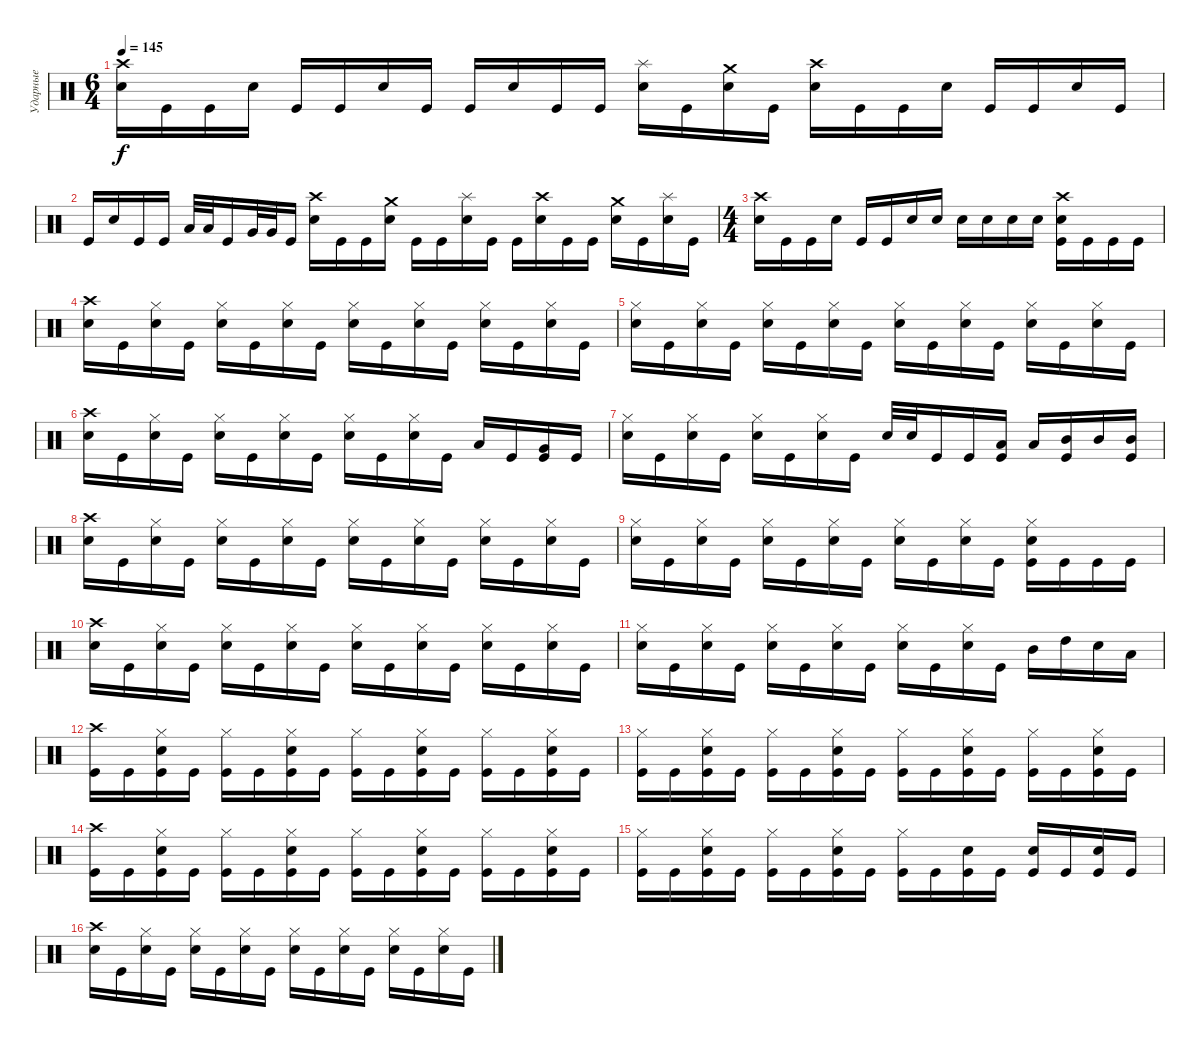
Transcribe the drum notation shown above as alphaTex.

\track ("Ударные" "Ударные") {instrument percussion}
\staff {score}
\articulation defaults
\ts (6 4)
\tempo 145
\clef neutral
\ks c
("Crash high (hit)" "Electric Snare (hit)").16{dy f} "Kick (hit)".16 "Kick (hit)".16 "Electric Snare (hit)".16 "Kick (hit)".16 "Kick (hit)".16 "Electric Snare (hit)".16 "Kick (hit)".16 "Kick (hit)".16 "Electric Snare (hit)".16 "Kick (hit)".16 "Kick (hit)".16 ("Splash (hit)" "Electric Snare (hit)").16 "Kick (hit)".16 ("Crash medium (hit)" "Electric Snare (hit)").16 "Kick (hit)".16 ("Crash high (hit)" "Electric Snare (hit)").16 "Kick (hit)".16 "Kick (hit)".16 "Electric Snare (hit)".16 "Kick (hit)".16 "Kick (hit)".16 "Electric Snare (hit)".16 "Kick (hit)".16 |
"Kick (hit)".16 "Electric Snare (hit)".16 "Kick (hit)".16 "Kick (hit)".16 "Low Tom (hit)".32 "Low Tom (hit)".32 "Kick (hit)".16 "Very Low Tom (hit)".32 "Very Low Tom (hit)".32 "Kick (hit)".16 ("Crash high (hit)" "Electric Snare (hit)").16 "Kick (hit)".16 "Kick (hit)".16 ("Crash medium (hit)" "Electric Snare (hit)").16 "Kick (hit)".16 "Kick (hit)".16 ("Splash (hit)" "Electric Snare (hit)").16 "Kick (hit)".16 "Kick (hit)".16 ("Crash high (hit)" "Electric Snare (hit)").16 "Kick (hit)".16 "Kick (hit)".16 ("Crash medium (hit)" "Electric Snare (hit)").16 "Kick (hit)".16 ("Splash (hit)" "Electric Snare (hit)").16 "Kick (hit)".16 |
\ts (4 4)
("Crash high (hit)" "Electric Snare (hit)").16 "Kick (hit)".16 "Kick (hit)".16 "Electric Snare (hit)".16 "Kick (hit)".16 "Kick (hit)".16 "Electric Snare (hit)".16 "Electric Snare (hit)".16 "Electric Snare (hit)".16 "Electric Snare (hit)".16 "Electric Snare (hit)".16 "Electric Snare (hit)".16 ("Crash high (hit)" "Electric Snare (hit)" "Kick (hit)").16 "Kick (hit)".16 "Kick (hit)".16 "Kick (hit)".16 |
("Crash high (hit)" "Electric Snare (hit)").16 "Kick (hit)".16 ("Hi-Hat (closed)" "Electric Snare (hit)").16 "Kick (hit)".16 ("Hi-Hat (closed)" "Electric Snare (hit)").16 "Kick (hit)".16 ("Hi-Hat (closed)" "Electric Snare (hit)").16 "Kick (hit)".16 ("Hi-Hat (closed)" "Electric Snare (hit)").16 "Kick (hit)".16 ("Hi-Hat (closed)" "Electric Snare (hit)").16 "Kick (hit)".16 ("Hi-Hat (closed)" "Electric Snare (hit)").16 "Kick (hit)".16 ("Hi-Hat (closed)" "Electric Snare (hit)").16 "Kick (hit)".16 |
("Hi-Hat (closed)" "Electric Snare (hit)").16 "Kick (hit)".16 ("Hi-Hat (closed)" "Electric Snare (hit)").16 "Kick (hit)".16 ("Hi-Hat (closed)" "Electric Snare (hit)").16 "Kick (hit)".16 ("Hi-Hat (closed)" "Electric Snare (hit)").16 "Kick (hit)".16 ("Hi-Hat (closed)" "Electric Snare (hit)").16 "Kick (hit)".16 ("Hi-Hat (closed)" "Electric Snare (hit)").16 "Kick (hit)".16 ("Hi-Hat (closed)" "Electric Snare (hit)").16 "Kick (hit)".16 ("Hi-Hat (closed)" "Electric Snare (hit)").16 "Kick (hit)".16 |
("Crash high (hit)" "Electric Snare (hit)").16 "Kick (hit)".16 ("Hi-Hat (closed)" "Electric Snare (hit)").16 "Kick (hit)".16 ("Hi-Hat (closed)" "Electric Snare (hit)").16 "Kick (hit)".16 ("Hi-Hat (closed)" "Electric Snare (hit)").16 "Kick (hit)".16 ("Hi-Hat (closed)" "Electric Snare (hit)").16 "Kick (hit)".16 ("Hi-Hat (closed)" "Electric Snare (hit)").16 "Kick (hit)".16 "Low Tom (hit)".16 "Kick (hit)".16 ("Very Low Tom (hit)" "Kick (hit)").16 "Kick (hit)".16 |
("Hi-Hat (closed)" "Electric Snare (hit)").16 "Kick (hit)".16 ("Hi-Hat (closed)" "Electric Snare (hit)").16 "Kick (hit)".16 ("Hi-Hat (closed)" "Electric Snare (hit)").16 "Kick (hit)".16 ("Hi-Hat (closed)" "Electric Snare (hit)").16 "Kick (hit)".16 "Electric Snare (hit)".32 "Electric Snare (hit)".32 "Kick (hit)".16 "Kick (hit)".16 ("Low Tom (hit)" "Kick (hit)").16 "Low Tom (hit)".16 ("Mid Tom (hit)" "Kick (hit)").16 "Mid Tom (hit)".16 ("Mid Tom (hit)" "Kick (hit)").16 |
("Crash high (hit)" "Electric Snare (hit)").16 "Kick (hit)".16 ("Hi-Hat (closed)" "Electric Snare (hit)").16 "Kick (hit)".16 ("Hi-Hat (closed)" "Electric Snare (hit)").16 "Kick (hit)".16 ("Hi-Hat (closed)" "Electric Snare (hit)").16 "Kick (hit)".16 ("Hi-Hat (closed)" "Electric Snare (hit)").16 "Kick (hit)".16 ("Hi-Hat (closed)" "Electric Snare (hit)").16 "Kick (hit)".16 ("Hi-Hat (closed)" "Electric Snare (hit)").16 "Kick (hit)".16 ("Hi-Hat (closed)" "Electric Snare (hit)").16 "Kick (hit)".16 |
("Hi-Hat (closed)" "Electric Snare (hit)").16 "Kick (hit)".16 ("Hi-Hat (closed)" "Electric Snare (hit)").16 "Kick (hit)".16 ("Hi-Hat (closed)" "Electric Snare (hit)").16 "Kick (hit)".16 ("Hi-Hat (closed)" "Electric Snare (hit)").16 "Kick (hit)".16 ("Hi-Hat (closed)" "Electric Snare (hit)").16 "Kick (hit)".16 ("Hi-Hat (closed)" "Electric Snare (hit)").16 "Kick (hit)".16 ("Hi-Hat (closed)" "Electric Snare (hit)" "Kick (hit)").16 "Kick (hit)".16 "Kick (hit)".16 "Kick (hit)".16 |
("Crash high (hit)" "Electric Snare (hit)").16 "Kick (hit)".16 ("Hi-Hat (closed)" "Electric Snare (hit)").16 "Kick (hit)".16 ("Hi-Hat (closed)" "Electric Snare (hit)").16 "Kick (hit)".16 ("Hi-Hat (closed)" "Electric Snare (hit)").16 "Kick (hit)".16 ("Hi-Hat (closed)" "Electric Snare (hit)").16 "Kick (hit)".16 ("Hi-Hat (closed)" "Electric Snare (hit)").16 "Kick (hit)".16 ("Hi-Hat (closed)" "Electric Snare (hit)").16 "Kick (hit)".16 ("Hi-Hat (closed)" "Electric Snare (hit)").16 "Kick (hit)".16 |
("Hi-Hat (closed)" "Electric Snare (hit)").16 "Kick (hit)".16 ("Hi-Hat (closed)" "Electric Snare (hit)").16 "Kick (hit)".16 ("Hi-Hat (closed)" "Electric Snare (hit)").16 "Kick (hit)".16 ("Hi-Hat (closed)" "Electric Snare (hit)").16 "Kick (hit)".16 ("Hi-Hat (closed)" "Electric Snare (hit)").16 "Kick (hit)".16 ("Hi-Hat (closed)" "Electric Snare (hit)").16 "Kick (hit)".16 "Mid Tom (hit)".16 "High Tom (hit)".16 "Electric Snare (hit)".16 "Low Tom (hit)".16 |
("Crash high (hit)" "Kick (hit)").16 "Kick (hit)".16 ("Hi-Hat (closed)" "Electric Snare (hit)" "Kick (hit)").16 "Kick (hit)".16 ("Hi-Hat (closed)" "Kick (hit)").16 "Kick (hit)".16 ("Hi-Hat (closed)" "Electric Snare (hit)" "Kick (hit)").16 "Kick (hit)".16 ("Hi-Hat (closed)" "Kick (hit)").16 "Kick (hit)".16 ("Hi-Hat (closed)" "Electric Snare (hit)" "Kick (hit)").16 "Kick (hit)".16 ("Hi-Hat (closed)" "Kick (hit)").16 "Kick (hit)".16 ("Hi-Hat (closed)" "Electric Snare (hit)" "Kick (hit)").16 "Kick (hit)".16 |
("Hi-Hat (closed)" "Kick (hit)").16 "Kick (hit)".16 ("Hi-Hat (closed)" "Electric Snare (hit)" "Kick (hit)").16 "Kick (hit)".16 ("Hi-Hat (closed)" "Kick (hit)").16 "Kick (hit)".16 ("Hi-Hat (closed)" "Electric Snare (hit)" "Kick (hit)").16 "Kick (hit)".16 ("Hi-Hat (closed)" "Kick (hit)").16 "Kick (hit)".16 ("Hi-Hat (closed)" "Electric Snare (hit)" "Kick (hit)").16 "Kick (hit)".16 ("Hi-Hat (closed)" "Kick (hit)").16 "Kick (hit)".16 ("Hi-Hat (closed)" "Electric Snare (hit)" "Kick (hit)").16 "Kick (hit)".16 |
("Crash high (hit)" "Kick (hit)").16 "Kick (hit)".16 ("Hi-Hat (closed)" "Electric Snare (hit)" "Kick (hit)").16 "Kick (hit)".16 ("Hi-Hat (closed)" "Kick (hit)").16 "Kick (hit)".16 ("Hi-Hat (closed)" "Electric Snare (hit)" "Kick (hit)").16 "Kick (hit)".16 ("Hi-Hat (closed)" "Kick (hit)").16 "Kick (hit)".16 ("Hi-Hat (closed)" "Electric Snare (hit)" "Kick (hit)").16 "Kick (hit)".16 ("Hi-Hat (closed)" "Kick (hit)").16 "Kick (hit)".16 ("Hi-Hat (closed)" "Electric Snare (hit)" "Kick (hit)").16 "Kick (hit)".16 |
("Hi-Hat (closed)" "Kick (hit)").16 "Kick (hit)".16 ("Hi-Hat (closed)" "Electric Snare (hit)" "Kick (hit)").16 "Kick (hit)".16 ("Hi-Hat (closed)" "Kick (hit)").16 "Kick (hit)".16 ("Hi-Hat (closed)" "Electric Snare (hit)" "Kick (hit)").16 "Kick (hit)".16 ("Hi-Hat (closed)" "Kick (hit)").16 "Kick (hit)".16 ("Electric Snare (hit)" "Kick (hit)").16 "Kick (hit)".16 ("Electric Snare (hit)" "Kick (hit)").16 "Kick (hit)".16 ("Electric Snare (hit)" "Kick (hit)").16 "Kick (hit)".16 |
("Crash high (hit)" "Electric Snare (hit)").16 "Kick (hit)".16 ("Hi-Hat (closed)" "Electric Snare (hit)").16 "Kick (hit)".16 ("Hi-Hat (closed)" "Electric Snare (hit)").16 "Kick (hit)".16 ("Hi-Hat (closed)" "Electric Snare (hit)").16 "Kick (hit)".16 ("Hi-Hat (closed)" "Electric Snare (hit)").16 "Kick (hit)".16 ("Hi-Hat (closed)" "Electric Snare (hit)").16 "Kick (hit)".16 ("Hi-Hat (closed)" "Electric Snare (hit)").16 "Kick (hit)".16 ("Hi-Hat (closed)" "Electric Snare (hit)").16 "Kick (hit)".16
